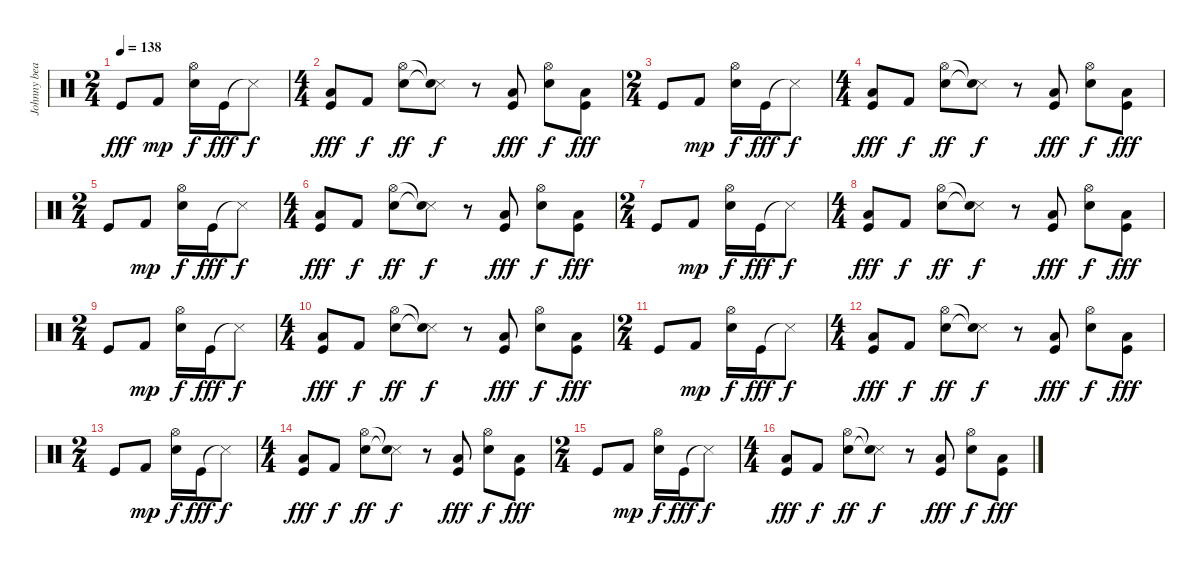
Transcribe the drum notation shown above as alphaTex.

\track ("Johnny beat" "Johnny bea") {instrument percussion}
\staff {score}
\articulation defaults
\ts (2 4)
\tempo 138
\clef neutral
\ks c "Kick (hit)".8{dy fff} "Kick (hit) 2".8{dy mp}
("Electric Snare (hit)" "Hi-Hat (open)").16{dy f} "Kick (hit)".16{dy fff} "Snare (side stick) 3"{t}.8{dy f} |
\ts (4 4)
("Low Tom (hit)" "Kick (hit)").8{dy fff} "Kick (hit) 2".8{dy f} ("Electric Snare (hit)" "Hi-Hat (open)").8{dy ff} ("Snare (side stick) 3"{t} "Snare (hit)"{t}).8{dy f} r.8 ("Low Tom (hit)" "Kick (hit)").8{dy fff} ("Electric Snare (hit)" "Hi-Hat (open)").8{dy f} ("Low Tom (hit)" "Kick (hit)").8{dy fff} |
\ts (2 4)
"Kick (hit)".8 "Kick (hit) 2".8{dy mp} ("Electric Snare (hit)" "Hi-Hat (open)").16{dy f} "Kick (hit)".16{dy fff} "Snare (side stick) 3"{t}.8{dy f} |
\ts (4 4)
("Low Tom (hit)" "Kick (hit)").8{dy fff} "Kick (hit) 2".8{dy f} ("Electric Snare (hit)" "Hi-Hat (open)").8{dy ff} ("Snare (side stick) 3"{t} "Snare (hit)"{t}).8{dy f} r.8 ("Low Tom (hit)" "Kick (hit)").8{dy fff} ("Electric Snare (hit)" "Hi-Hat (open)").8{dy f} ("Low Tom (hit)" "Kick (hit)").8{dy fff} |
\ts (2 4)
"Kick (hit)".8 "Kick (hit) 2".8{dy mp} ("Electric Snare (hit)" "Hi-Hat (open)").16{dy f} "Kick (hit)".16{dy fff} "Snare (side stick) 3"{t}.8{dy f} |
\ts (4 4)
("Low Tom (hit)" "Kick (hit)").8{dy fff} "Kick (hit) 2".8{dy f} ("Electric Snare (hit)" "Hi-Hat (open)").8{dy ff} ("Snare (side stick) 3"{t} "Snare (hit)"{t}).8{dy f} r.8 ("Low Tom (hit)" "Kick (hit)").8{dy fff} ("Electric Snare (hit)" "Hi-Hat (open)").8{dy f} ("Low Tom (hit)" "Kick (hit)").8{dy fff} |
\ts (2 4)
"Kick (hit)".8 "Kick (hit) 2".8{dy mp} ("Electric Snare (hit)" "Hi-Hat (open)").16{dy f} "Kick (hit)".16{dy fff} "Snare (side stick) 3"{t}.8{dy f} |
\ts (4 4)
("Low Tom (hit)" "Kick (hit)").8{dy fff} "Kick (hit) 2".8{dy f} ("Electric Snare (hit)" "Hi-Hat (open)").8{dy ff} ("Snare (side stick) 3"{t} "Snare (hit)"{t}).8{dy f} r.8 ("Low Tom (hit)" "Kick (hit)").8{dy fff} ("Electric Snare (hit)" "Hi-Hat (open)").8{dy f} ("Low Tom (hit)" "Kick (hit)").8{dy fff} |
\ts (2 4)
"Kick (hit)".8 "Kick (hit) 2".8{dy mp} ("Electric Snare (hit)" "Hi-Hat (open)").16{dy f} "Kick (hit)".16{dy fff} "Snare (side stick) 3"{t}.8{dy f} |
\ts (4 4)
("Low Tom (hit)" "Kick (hit)").8{dy fff} "Kick (hit) 2".8{dy f} ("Electric Snare (hit)" "Hi-Hat (open)").8{dy ff} ("Snare (side stick) 3"{t} "Snare (hit)"{t}).8{dy f} r.8 ("Low Tom (hit)" "Kick (hit)").8{dy fff} ("Electric Snare (hit)" "Hi-Hat (open)").8{dy f} ("Low Tom (hit)" "Kick (hit)").8{dy fff} |
\ts (2 4)
"Kick (hit)".8 "Kick (hit) 2".8{dy mp} ("Electric Snare (hit)" "Hi-Hat (open)").16{dy f} "Kick (hit)".16{dy fff} "Snare (side stick) 3"{t}.8{dy f} |
\ts (4 4)
("Low Tom (hit)" "Kick (hit)").8{dy fff} "Kick (hit) 2".8{dy f} ("Electric Snare (hit)" "Hi-Hat (open)").8{dy ff} ("Snare (side stick) 3"{t} "Snare (hit)"{t}).8{dy f} r.8 ("Low Tom (hit)" "Kick (hit)").8{dy fff} ("Electric Snare (hit)" "Hi-Hat (open)").8{dy f} ("Low Tom (hit)" "Kick (hit)").8{dy fff} |
\ts (2 4)
"Kick (hit)".8 "Kick (hit) 2".8{dy mp} ("Electric Snare (hit)" "Hi-Hat (open)").16{dy f} "Kick (hit)".16{dy fff} "Snare (side stick) 3"{t}.8{dy f} |
\ts (4 4)
("Low Tom (hit)" "Kick (hit)").8{dy fff} "Kick (hit) 2".8{dy f} ("Electric Snare (hit)" "Hi-Hat (open)").8{dy ff} ("Snare (side stick) 3"{t} "Snare (hit)"{t}).8{dy f} r.8 ("Low Tom (hit)" "Kick (hit)").8{dy fff} ("Electric Snare (hit)" "Hi-Hat (open)").8{dy f} ("Low Tom (hit)" "Kick (hit)").8{dy fff} |
\ts (2 4)
"Kick (hit)".8 "Kick (hit) 2".8{dy mp} ("Electric Snare (hit)" "Hi-Hat (open)").16{dy f} "Kick (hit)".16{dy fff} "Snare (side stick) 3"{t}.8{dy f} |
\ts (4 4)
("Low Tom (hit)" "Kick (hit)").8{dy fff} "Kick (hit) 2".8{dy f} ("Electric Snare (hit)" "Hi-Hat (open)").8{dy ff} ("Snare (side stick) 3"{t} "Snare (hit)"{t}).8{dy f} r.8 ("Low Tom (hit)" "Kick (hit)").8{dy fff} ("Electric Snare (hit)" "Hi-Hat (open)").8{dy f} ("Low Tom (hit)" "Kick (hit)").8{dy fff}
